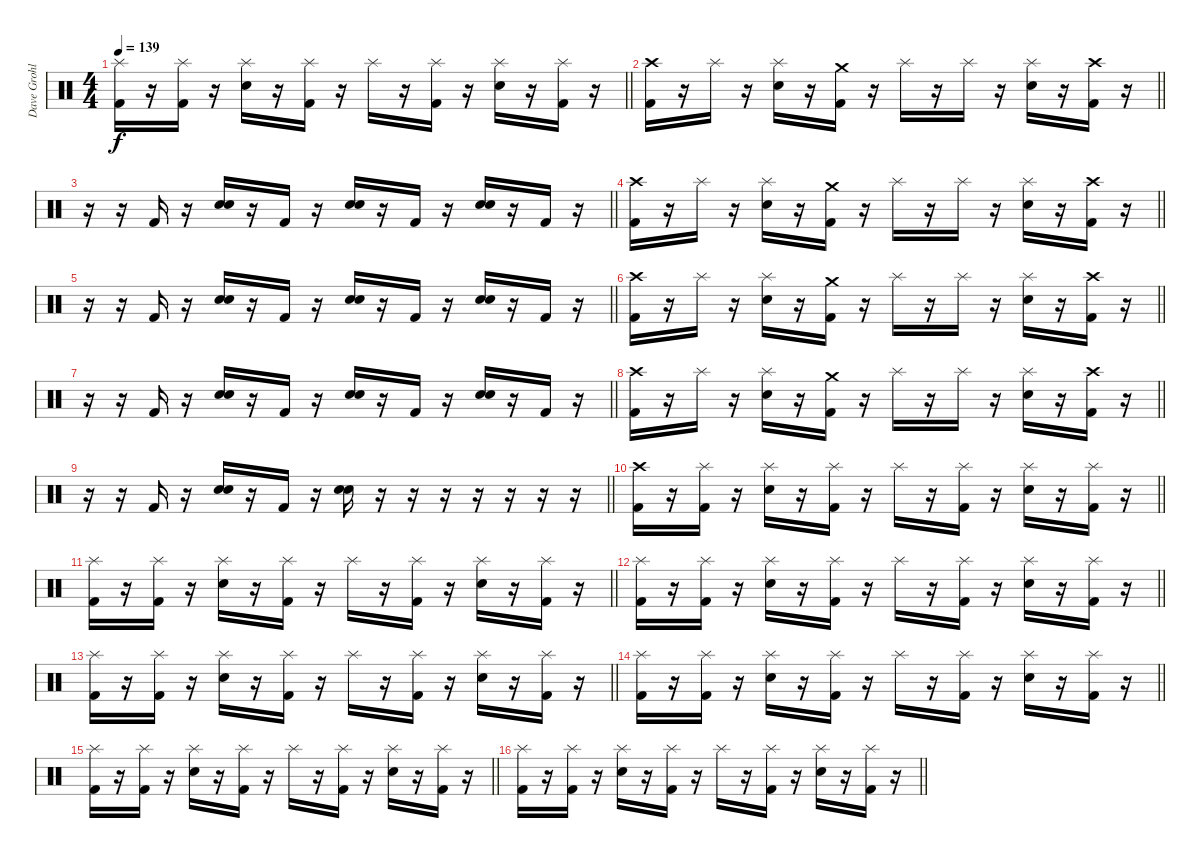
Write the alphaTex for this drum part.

\track ("Dave Grohl" "Dave Grohl") {instrument percussion}
\staff {score}
\articulation defaults
\ts (4 4)
\tempo 139
\clef neutral
\barLineRight lightlight
\ks c
("Splash (hit)" "Kick (hit) 2").16{dy f} r.16 ("Splash (hit)" "Kick (hit) 2").16 r.16 ("Splash (hit)" "Electric Snare (hit)").16 r.16 ("Splash (hit)" "Kick (hit) 2").16 r.16 "Splash (hit)".16 r.16 ("Splash (hit)" "Kick (hit) 2").16 r.16 ("Splash (hit)" "Electric Snare (hit)").16 r.16 ("Splash (hit)" "Kick (hit) 2").16 r.16 |
\barLineRight lightlight
("Crash high (hit)" "Kick (hit) 2").16 r.16 "Splash (hit)".16 r.16 ("Splash (hit)" "Electric Snare (hit)").16 r.16 ("Crash medium (hit)" "Kick (hit) 2").16 r.16 "Splash (hit)".16 r.16 "Splash (hit)".16 r.16 ("Splash (hit)" "Electric Snare (hit)").16 r.16 ("Crash high (hit)" "Kick (hit) 2").16 r.16 |
\barLineRight lightlight
r.16 r.16 "Kick (hit) 2".16 r.16 ("Electric Snare (hit)" "Electric Snare (hit)").16 r.16 "Kick (hit) 2".16 r.16 ("Electric Snare (hit)" "Electric Snare (hit)").16 r.16 "Kick (hit) 2".16 r.16 ("Electric Snare (hit)" "Electric Snare (hit)").16 r.16 "Kick (hit) 2".16 r.16 |
\barLineRight lightlight
("Crash high (hit)" "Kick (hit) 2").16 r.16 "Splash (hit)".16 r.16 ("Splash (hit)" "Electric Snare (hit)").16 r.16 ("Crash medium (hit)" "Kick (hit) 2").16 r.16 "Splash (hit)".16 r.16 "Splash (hit)".16 r.16 ("Splash (hit)" "Electric Snare (hit)").16 r.16 ("Crash high (hit)" "Kick (hit) 2").16 r.16 |
\barLineRight lightlight
r.16 r.16 "Kick (hit) 2".16 r.16 ("Electric Snare (hit)" "Electric Snare (hit)").16 r.16 "Kick (hit) 2".16 r.16 ("Electric Snare (hit)" "Electric Snare (hit)").16 r.16 "Kick (hit) 2".16 r.16 ("Electric Snare (hit)" "Electric Snare (hit)").16 r.16 "Kick (hit) 2".16 r.16 |
\barLineRight lightlight
("Crash high (hit)" "Kick (hit) 2").16 r.16 "Splash (hit)".16 r.16 ("Splash (hit)" "Electric Snare (hit)").16 r.16 ("Crash medium (hit)" "Kick (hit) 2").16 r.16 "Splash (hit)".16 r.16 "Splash (hit)".16 r.16 ("Splash (hit)" "Electric Snare (hit)").16 r.16 ("Crash high (hit)" "Kick (hit) 2").16 r.16 |
\barLineRight lightlight
r.16 r.16 "Kick (hit) 2".16 r.16 ("Electric Snare (hit)" "Electric Snare (hit)").16 r.16 "Kick (hit) 2".16 r.16 ("Electric Snare (hit)" "Electric Snare (hit)").16 r.16 "Kick (hit) 2".16 r.16 ("Electric Snare (hit)" "Electric Snare (hit)").16 r.16 "Kick (hit) 2".16 r.16 |
\barLineRight lightlight
("Crash high (hit)" "Kick (hit) 2").16 r.16 "Splash (hit)".16 r.16 ("Splash (hit)" "Electric Snare (hit)").16 r.16 ("Crash medium (hit)" "Kick (hit) 2").16 r.16 "Splash (hit)".16 r.16 "Splash (hit)".16 r.16 ("Splash (hit)" "Electric Snare (hit)").16 r.16 ("Crash high (hit)" "Kick (hit) 2").16 r.16 |
\barLineRight lightlight
r.16 r.16 "Kick (hit) 2".16 r.16 ("Electric Snare (hit)" "Electric Snare (hit)").16 r.16 "Kick (hit) 2".16 r.16 ("Electric Snare (hit)" "Electric Snare (hit)").16 r.16 r.16 r.16 r.16 r.16 r.16 r.16 |
\barLineRight lightlight
("Crash high (hit)" "Kick (hit) 2").16 r.16 ("Splash (hit)" "Kick (hit) 2").16 r.16 ("Splash (hit)" "Electric Snare (hit)").16 r.16 ("Splash (hit)" "Kick (hit) 2").16 r.16 "Splash (hit)".16 r.16 ("Splash (hit)" "Kick (hit) 2").16 r.16 ("Splash (hit)" "Electric Snare (hit)").16 r.16 ("Splash (hit)" "Kick (hit) 2").16 r.16 |
\barLineRight lightlight
("Splash (hit)" "Kick (hit) 2").16 r.16 ("Splash (hit)" "Kick (hit) 2").16 r.16 ("Splash (hit)" "Electric Snare (hit)").16 r.16 ("Splash (hit)" "Kick (hit) 2").16 r.16 "Splash (hit)".16 r.16 ("Splash (hit)" "Kick (hit) 2").16 r.16 ("Splash (hit)" "Electric Snare (hit)").16 r.16 ("Splash (hit)" "Kick (hit) 2").16 r.16 |
\barLineRight lightlight
("Splash (hit)" "Kick (hit) 2").16 r.16 ("Splash (hit)" "Kick (hit) 2").16 r.16 ("Splash (hit)" "Electric Snare (hit)").16 r.16 ("Splash (hit)" "Kick (hit) 2").16 r.16 "Splash (hit)".16 r.16 ("Splash (hit)" "Kick (hit) 2").16 r.16 ("Splash (hit)" "Electric Snare (hit)").16 r.16 ("Splash (hit)" "Kick (hit) 2").16 r.16 |
\barLineRight lightlight
("Splash (hit)" "Kick (hit) 2").16 r.16 ("Splash (hit)" "Kick (hit) 2").16 r.16 ("Splash (hit)" "Electric Snare (hit)").16 r.16 ("Splash (hit)" "Kick (hit) 2").16 r.16 "Splash (hit)".16 r.16 ("Splash (hit)" "Kick (hit) 2").16 r.16 ("Splash (hit)" "Electric Snare (hit)").16 r.16 ("Splash (hit)" "Kick (hit) 2").16 r.16 |
\barLineRight lightlight
("Splash (hit)" "Kick (hit) 2").16 r.16 ("Splash (hit)" "Kick (hit) 2").16 r.16 ("Splash (hit)" "Electric Snare (hit)").16 r.16 ("Splash (hit)" "Kick (hit) 2").16 r.16 "Splash (hit)".16 r.16 ("Splash (hit)" "Kick (hit) 2").16 r.16 ("Splash (hit)" "Electric Snare (hit)").16 r.16 ("Splash (hit)" "Kick (hit) 2").16 r.16 |
\barLineRight lightlight
("Splash (hit)" "Kick (hit) 2").16 r.16 ("Splash (hit)" "Kick (hit) 2").16 r.16 ("Splash (hit)" "Electric Snare (hit)").16 r.16 ("Splash (hit)" "Kick (hit) 2").16 r.16 "Splash (hit)".16 r.16 ("Splash (hit)" "Kick (hit) 2").16 r.16 ("Splash (hit)" "Electric Snare (hit)").16 r.16 ("Splash (hit)" "Kick (hit) 2").16 r.16 |
\barLineRight lightlight
("Splash (hit)" "Kick (hit) 2").16 r.16 ("Splash (hit)" "Kick (hit) 2").16 r.16 ("Splash (hit)" "Electric Snare (hit)").16 r.16 ("Splash (hit)" "Kick (hit) 2").16 r.16 "Splash (hit)".16 r.16 ("Splash (hit)" "Kick (hit) 2").16 r.16 ("Splash (hit)" "Electric Snare (hit)").16 r.16 ("Splash (hit)" "Kick (hit) 2").16 r.16
